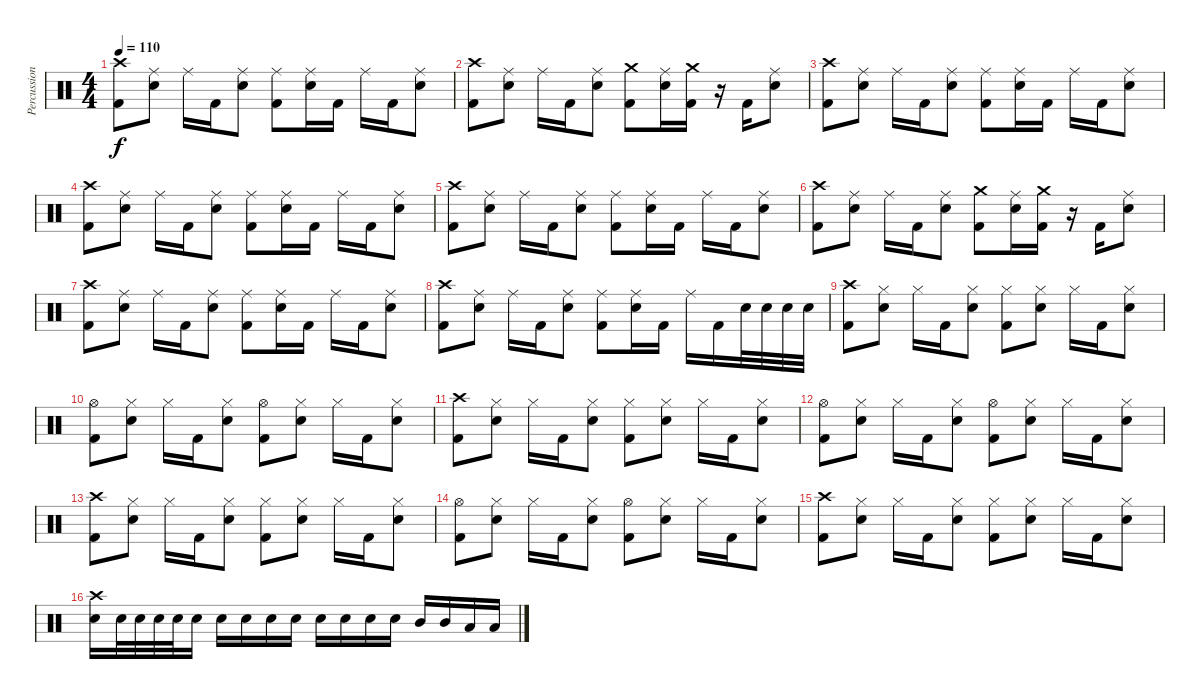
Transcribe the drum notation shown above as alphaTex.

\track ("Percussion" "Percussion") {instrument percussion}
\staff {score}
\articulation defaults
\ts (4 4)
\tempo 110
\clef neutral
\ks c
("Crash high (hit)" "Kick (hit) 2").8{dy f} ("Ride (middle)" "Electric Snare (hit)").8 "Ride (middle)".16 "Kick (hit) 2".16 ("Ride (middle)" "Electric Snare (hit)").8 ("Ride (middle)" "Kick (hit) 2").8 ("Ride (middle)" "Electric Snare (hit)").16 "Kick (hit) 2".16 "Ride (middle)".16 "Kick (hit) 2".16 ("Ride (middle)" "Electric Snare (hit)").8 |
("Crash high (hit)" "Kick (hit) 2").8 ("Ride (middle)" "Electric Snare (hit)").8 "Ride (middle)".16 "Kick (hit) 2".16 ("Ride (middle)" "Electric Snare (hit)").8 ("Crash medium (hit)" "Kick (hit) 2").8 ("Ride (middle)" "Electric Snare (hit)").16 ("Crash medium (hit)" "Kick (hit) 2").16 r.16 "Kick (hit) 2".16 ("Ride (middle)" "Electric Snare (hit)").8 |
("Crash high (hit)" "Kick (hit) 2").8 ("Ride (middle)" "Electric Snare (hit)").8 "Ride (middle)".16 "Kick (hit) 2".16 ("Ride (middle)" "Electric Snare (hit)").8 ("Ride (middle)" "Kick (hit) 2").8 ("Ride (middle)" "Electric Snare (hit)").16 "Kick (hit) 2".16 "Ride (middle)".16 "Kick (hit) 2".16 ("Ride (middle)" "Electric Snare (hit)").8 |
("Crash high (hit)" "Kick (hit) 2").8 ("Ride (middle)" "Electric Snare (hit)").8 "Ride (middle)".16 "Kick (hit) 2".16 ("Ride (middle)" "Electric Snare (hit)").8 ("Ride (middle)" "Kick (hit) 2").8 ("Ride (middle)" "Electric Snare (hit)").16 "Kick (hit) 2".16 "Ride (middle)".16 "Kick (hit) 2".16 ("Ride (middle)" "Electric Snare (hit)").8 |
("Crash high (hit)" "Kick (hit) 2").8 ("Ride (middle)" "Electric Snare (hit)").8 "Ride (middle)".16 "Kick (hit) 2".16 ("Ride (middle)" "Electric Snare (hit)").8 ("Ride (middle)" "Kick (hit) 2").8 ("Ride (middle)" "Electric Snare (hit)").16 "Kick (hit) 2".16 "Ride (middle)".16 "Kick (hit) 2".16 ("Ride (middle)" "Electric Snare (hit)").8 |
("Crash high (hit)" "Kick (hit) 2").8 ("Ride (middle)" "Electric Snare (hit)").8 "Ride (middle)".16 "Kick (hit) 2".16 ("Ride (middle)" "Electric Snare (hit)").8 ("Crash medium (hit)" "Kick (hit) 2").8 ("Ride (middle)" "Electric Snare (hit)").16 ("Crash medium (hit)" "Kick (hit) 2").16 r.16 "Kick (hit) 2".16 ("Ride (middle)" "Electric Snare (hit)").8 |
("Crash high (hit)" "Kick (hit) 2").8 ("Ride (middle)" "Electric Snare (hit)").8 "Ride (middle)".16 "Kick (hit) 2".16 ("Ride (middle)" "Electric Snare (hit)").8 ("Ride (middle)" "Kick (hit) 2").8 ("Ride (middle)" "Electric Snare (hit)").16 "Kick (hit) 2".16 "Ride (middle)".16 "Kick (hit) 2".16 ("Ride (middle)" "Electric Snare (hit)").8 |
("Crash high (hit)" "Kick (hit) 2").8 ("Ride (middle)" "Electric Snare (hit)").8 "Ride (middle)".16 "Kick (hit) 2".16 ("Ride (middle)" "Electric Snare (hit)").8 ("Ride (middle)" "Kick (hit) 2").8 ("Ride (middle)" "Electric Snare (hit)").16 "Kick (hit) 2".16 "Ride (middle)".16 "Kick (hit) 2".16 "Electric Snare (hit)".32 "Electric Snare (hit)".32 "Electric Snare (hit)".32 "Electric Snare (hit)".32 |
("Crash high (hit)" "Kick (hit) 2").8 ("Hi-Hat (closed)" "Electric Snare (hit)").8 "Hi-Hat (closed)".16 "Kick (hit) 2".16 ("Hi-Hat (closed)" "Electric Snare (hit)").8 ("Hi-Hat (closed)" "Kick (hit) 2").8 ("Hi-Hat (closed)" "Electric Snare (hit)").8 "Hi-Hat (closed)".16 "Kick (hit) 2".16 ("Hi-Hat (closed)" "Electric Snare (hit)").8 |
("Hi-Hat (open)" "Kick (hit) 2").8 ("Hi-Hat (closed)" "Electric Snare (hit)").8 "Hi-Hat (closed)".16 "Kick (hit) 2".16 ("Hi-Hat (closed)" "Electric Snare (hit)").8 ("Hi-Hat (open)" "Kick (hit) 2").8 ("Hi-Hat (closed)" "Electric Snare (hit)").8 "Hi-Hat (closed)".16 "Kick (hit) 2".16 ("Hi-Hat (closed)" "Electric Snare (hit)").8 |
("Crash high (hit)" "Kick (hit) 2").8 ("Hi-Hat (closed)" "Electric Snare (hit)").8 "Hi-Hat (closed)".16 "Kick (hit) 2".16 ("Hi-Hat (closed)" "Electric Snare (hit)").8 ("Hi-Hat (closed)" "Kick (hit) 2").8 ("Hi-Hat (closed)" "Electric Snare (hit)").8 "Hi-Hat (closed)".16 "Kick (hit) 2".16 ("Hi-Hat (closed)" "Electric Snare (hit)").8 |
("Hi-Hat (open)" "Kick (hit) 2").8 ("Hi-Hat (closed)" "Electric Snare (hit)").8 "Hi-Hat (closed)".16 "Kick (hit) 2".16 ("Hi-Hat (closed)" "Electric Snare (hit)").8 ("Hi-Hat (open)" "Kick (hit) 2").8 ("Hi-Hat (closed)" "Electric Snare (hit)").8 "Hi-Hat (closed)".16 "Kick (hit) 2".16 ("Hi-Hat (closed)" "Electric Snare (hit)").8 |
("Crash high (hit)" "Kick (hit) 2").8 ("Hi-Hat (closed)" "Electric Snare (hit)").8 "Hi-Hat (closed)".16 "Kick (hit) 2".16 ("Hi-Hat (closed)" "Electric Snare (hit)").8 ("Hi-Hat (closed)" "Kick (hit) 2").8 ("Hi-Hat (closed)" "Electric Snare (hit)").8 "Hi-Hat (closed)".16 "Kick (hit) 2".16 ("Hi-Hat (closed)" "Electric Snare (hit)").8 |
("Hi-Hat (open)" "Kick (hit) 2").8 ("Hi-Hat (closed)" "Electric Snare (hit)").8 "Hi-Hat (closed)".16 "Kick (hit) 2".16 ("Hi-Hat (closed)" "Electric Snare (hit)").8 ("Hi-Hat (open)" "Kick (hit) 2").8 ("Hi-Hat (closed)" "Electric Snare (hit)").8 "Hi-Hat (closed)".16 "Kick (hit) 2".16 ("Hi-Hat (closed)" "Electric Snare (hit)").8 |
("Crash high (hit)" "Kick (hit) 2").8 ("Hi-Hat (closed)" "Electric Snare (hit)").8 "Hi-Hat (closed)".16 "Kick (hit) 2".16 ("Hi-Hat (closed)" "Electric Snare (hit)").8 ("Hi-Hat (closed)" "Kick (hit) 2").8 ("Hi-Hat (closed)" "Electric Snare (hit)").8 "Hi-Hat (closed)".16 "Kick (hit) 2".16 ("Hi-Hat (closed)" "Electric Snare (hit)").8 |
("Crash high (hit)" "Electric Snare (hit)").16 "Electric Snare (hit)".32 "Electric Snare (hit)".32 "Electric Snare (hit)".32 "Electric Snare (hit)".32 "Electric Snare (hit)".16 "Electric Snare (hit)".16 "Electric Snare (hit)".16 "Electric Snare (hit)".16 "Electric Snare (hit)".16 "Electric Snare (hit)".16 "Electric Snare (hit)".16 "Electric Snare (hit)".16 "Electric Snare (hit)".16 "Mid Tom (hit)".16 "Mid Tom (hit)".16 "Low Tom (hit)".16 "Low Tom (hit)".16
